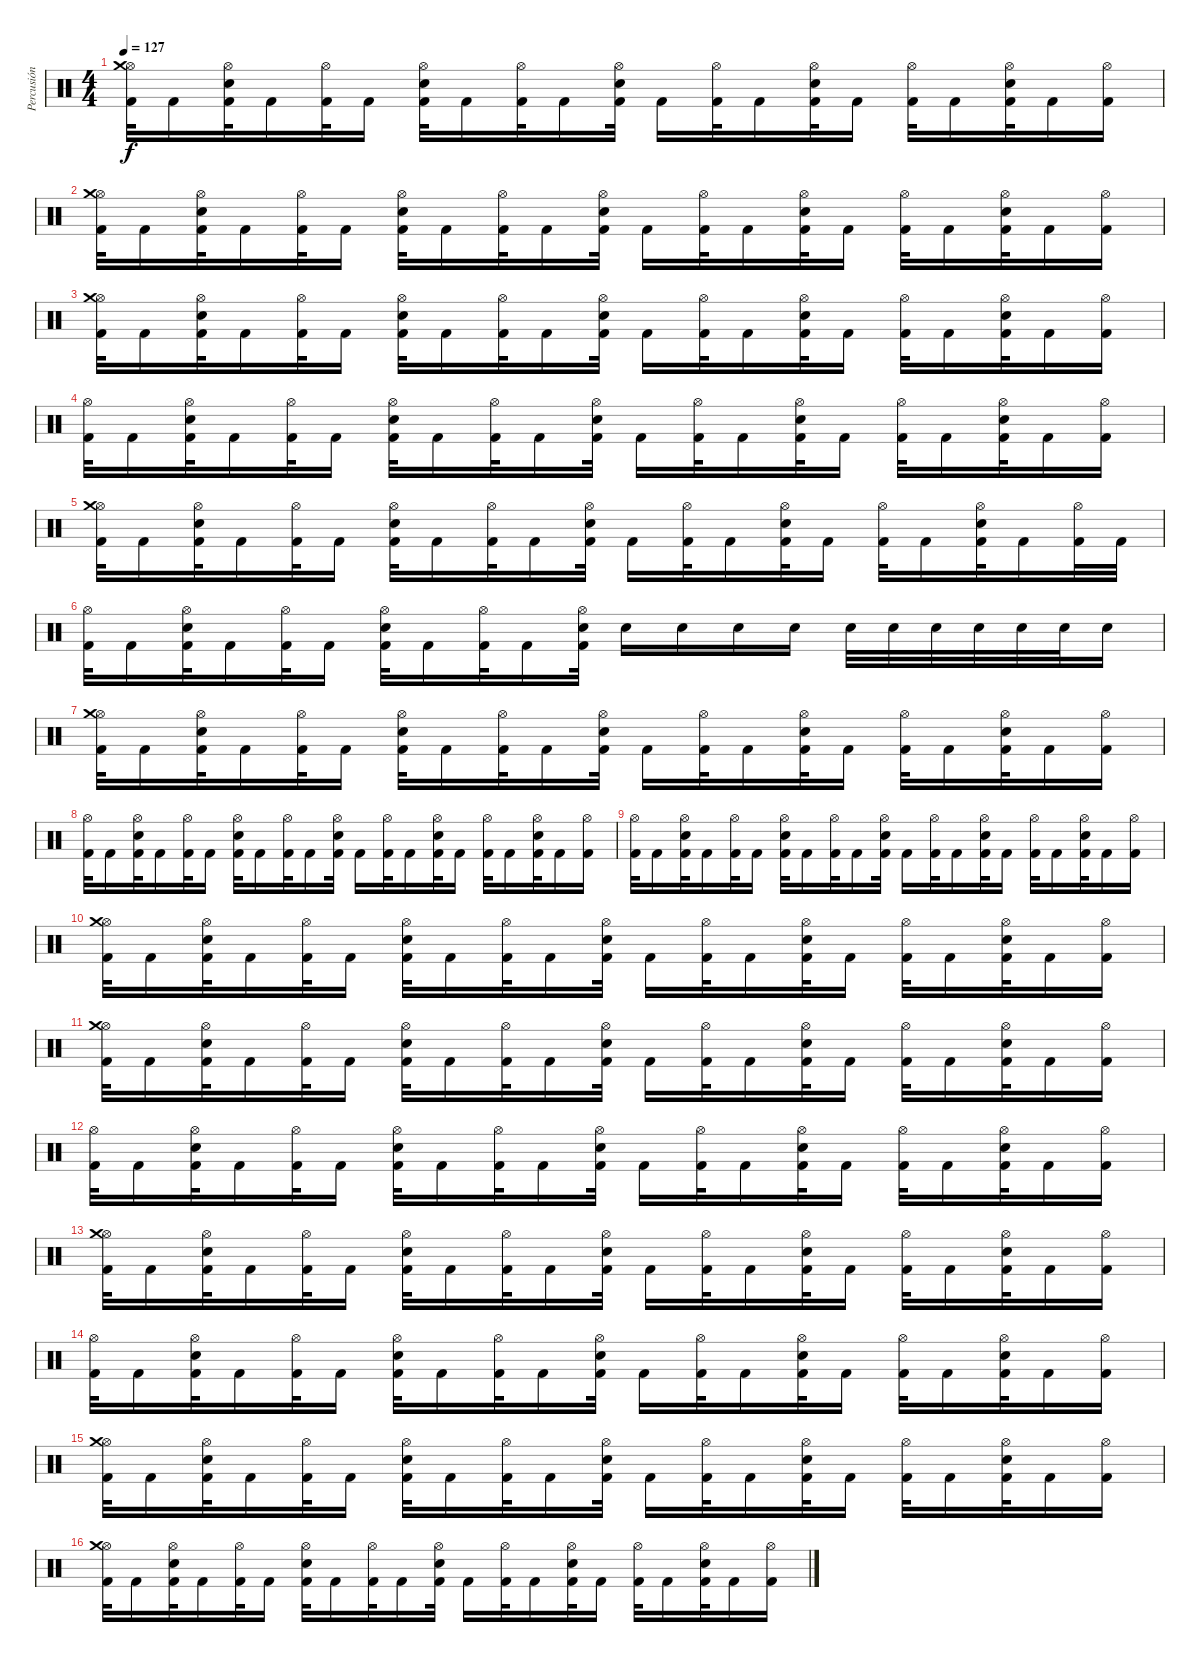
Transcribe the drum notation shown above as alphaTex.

\track ("Percusión" "Percusión") {instrument percussion}
\staff {score}
\articulation defaults
\ts (4 4)
\tempo 127
\clef neutral
\ks c
("Hi-Hat (open)" "Kick (hit) 2" "Crash medium (hit)").32{dy f} "Kick (hit) 2".16 ("Hi-Hat (open)" "Electric Snare (hit)" "Kick (hit) 2").32 "Kick (hit) 2".16 ("Hi-Hat (open)" "Kick (hit) 2").32 "Kick (hit) 2".16 ("Hi-Hat (open)" "Electric Snare (hit)" "Kick (hit) 2").32 "Kick (hit) 2".16 ("Hi-Hat (open)" "Kick (hit) 2").32 "Kick (hit) 2".16 ("Hi-Hat (open)" "Electric Snare (hit)" "Kick (hit) 2").32 "Kick (hit) 2".16 ("Hi-Hat (open)" "Kick (hit) 2").32 "Kick (hit) 2".16 ("Hi-Hat (open)" "Electric Snare (hit)" "Kick (hit) 2").32 "Kick (hit) 2".16 ("Hi-Hat (open)" "Kick (hit) 2").32 "Kick (hit) 2".16 ("Hi-Hat (open)" "Electric Snare (hit)" "Kick (hit) 2").32 "Kick (hit) 2".16 ("Hi-Hat (open)" "Kick (hit) 2").16 |
("Hi-Hat (open)" "Kick (hit) 2" "Crash medium (hit)").32 "Kick (hit) 2".16 ("Hi-Hat (open)" "Electric Snare (hit)" "Kick (hit) 2").32 "Kick (hit) 2".16 ("Hi-Hat (open)" "Kick (hit) 2").32 "Kick (hit) 2".16 ("Hi-Hat (open)" "Electric Snare (hit)" "Kick (hit) 2").32 "Kick (hit) 2".16 ("Hi-Hat (open)" "Kick (hit) 2").32 "Kick (hit) 2".16 ("Hi-Hat (open)" "Electric Snare (hit)" "Kick (hit) 2").32 "Kick (hit) 2".16 ("Hi-Hat (open)" "Kick (hit) 2").32 "Kick (hit) 2".16 ("Hi-Hat (open)" "Electric Snare (hit)" "Kick (hit) 2").32 "Kick (hit) 2".16 ("Hi-Hat (open)" "Kick (hit) 2").32 "Kick (hit) 2".16 ("Hi-Hat (open)" "Electric Snare (hit)" "Kick (hit) 2").32 "Kick (hit) 2".16 ("Hi-Hat (open)" "Kick (hit) 2").16 |
("Hi-Hat (open)" "Kick (hit) 2" "Crash medium (hit)").32 "Kick (hit) 2".16 ("Hi-Hat (open)" "Electric Snare (hit)" "Kick (hit) 2").32 "Kick (hit) 2".16 ("Hi-Hat (open)" "Kick (hit) 2").32 "Kick (hit) 2".16 ("Hi-Hat (open)" "Electric Snare (hit)" "Kick (hit) 2").32 "Kick (hit) 2".16 ("Hi-Hat (open)" "Kick (hit) 2").32 "Kick (hit) 2".16 ("Hi-Hat (open)" "Electric Snare (hit)" "Kick (hit) 2").32 "Kick (hit) 2".16 ("Hi-Hat (open)" "Kick (hit) 2").32 "Kick (hit) 2".16 ("Hi-Hat (open)" "Electric Snare (hit)" "Kick (hit) 2").32 "Kick (hit) 2".16 ("Hi-Hat (open)" "Kick (hit) 2").32 "Kick (hit) 2".16 ("Hi-Hat (open)" "Electric Snare (hit)" "Kick (hit) 2").32 "Kick (hit) 2".16 ("Hi-Hat (open)" "Kick (hit) 2").16 |
("Hi-Hat (open)" "Kick (hit) 2").32 "Kick (hit) 2".16 ("Hi-Hat (open)" "Electric Snare (hit)" "Kick (hit) 2").32 "Kick (hit) 2".16 ("Hi-Hat (open)" "Kick (hit) 2").32 "Kick (hit) 2".16 ("Hi-Hat (open)" "Electric Snare (hit)" "Kick (hit) 2").32 "Kick (hit) 2".16 ("Hi-Hat (open)" "Kick (hit) 2").32 "Kick (hit) 2".16 ("Hi-Hat (open)" "Electric Snare (hit)" "Kick (hit) 2").32 "Kick (hit) 2".16 ("Hi-Hat (open)" "Kick (hit) 2").32 "Kick (hit) 2".16 ("Hi-Hat (open)" "Electric Snare (hit)" "Kick (hit) 2").32 "Kick (hit) 2".16 ("Hi-Hat (open)" "Kick (hit) 2").32 "Kick (hit) 2".16 ("Hi-Hat (open)" "Electric Snare (hit)" "Kick (hit) 2").32 "Kick (hit) 2".16 ("Hi-Hat (open)" "Kick (hit) 2").16 |
("Hi-Hat (open)" "Kick (hit) 2" "Crash medium (hit)").32 "Kick (hit) 2".16 ("Hi-Hat (open)" "Electric Snare (hit)" "Kick (hit) 2").32 "Kick (hit) 2".16 ("Hi-Hat (open)" "Kick (hit) 2").32 "Kick (hit) 2".16 ("Hi-Hat (open)" "Electric Snare (hit)" "Kick (hit) 2").32 "Kick (hit) 2".16 ("Hi-Hat (open)" "Kick (hit) 2").32 "Kick (hit) 2".16 ("Hi-Hat (open)" "Electric Snare (hit)" "Kick (hit) 2").32 "Kick (hit) 2".16 ("Hi-Hat (open)" "Kick (hit) 2").32 "Kick (hit) 2".16 ("Hi-Hat (open)" "Electric Snare (hit)" "Kick (hit) 2").32 "Kick (hit) 2".16 ("Hi-Hat (open)" "Kick (hit) 2").32 "Kick (hit) 2".16 ("Hi-Hat (open)" "Electric Snare (hit)" "Kick (hit) 2").32 "Kick (hit) 2".16 ("Hi-Hat (open)" "Kick (hit) 2").32 "Kick (hit) 2".32 |
("Hi-Hat (open)" "Kick (hit) 2").32 "Kick (hit) 2".16 ("Hi-Hat (open)" "Electric Snare (hit)" "Kick (hit) 2").32 "Kick (hit) 2".16 ("Hi-Hat (open)" "Kick (hit) 2").32 "Kick (hit) 2".16 ("Hi-Hat (open)" "Electric Snare (hit)" "Kick (hit) 2").32 "Kick (hit) 2".16 ("Hi-Hat (open)" "Kick (hit) 2").32 "Kick (hit) 2".16 ("Hi-Hat (open)" "Electric Snare (hit)" "Kick (hit) 2").32 "Snare (hit) 2".16 "Snare (hit) 2".16 "Snare (hit) 2".16 "Snare (hit) 2".16 "Snare (hit) 2".32 "Snare (hit) 2".32 "Snare (hit) 2".32 "Snare (hit) 2".32 "Snare (hit) 2".32 "Snare (hit) 2".32 "Snare (hit) 2".16 |
("Hi-Hat (open)" "Kick (hit) 2" "Crash medium (hit)").32 "Kick (hit) 2".16 ("Hi-Hat (open)" "Electric Snare (hit)" "Kick (hit) 2").32 "Kick (hit) 2".16 ("Hi-Hat (open)" "Kick (hit) 2").32 "Kick (hit) 2".16 ("Hi-Hat (open)" "Electric Snare (hit)" "Kick (hit) 2").32 "Kick (hit) 2".16 ("Hi-Hat (open)" "Kick (hit) 2").32 "Kick (hit) 2".16 ("Hi-Hat (open)" "Electric Snare (hit)" "Kick (hit) 2").32 "Kick (hit) 2".16 ("Hi-Hat (open)" "Kick (hit) 2").32 "Kick (hit) 2".16 ("Hi-Hat (open)" "Electric Snare (hit)" "Kick (hit) 2").32 "Kick (hit) 2".16 ("Hi-Hat (open)" "Kick (hit) 2").32 "Kick (hit) 2".16 ("Hi-Hat (open)" "Electric Snare (hit)" "Kick (hit) 2").32 "Kick (hit) 2".16 ("Hi-Hat (open)" "Kick (hit) 2").16 |
("Hi-Hat (open)" "Kick (hit) 2").32 "Kick (hit) 2".16 ("Hi-Hat (open)" "Electric Snare (hit)" "Kick (hit) 2").32 "Kick (hit) 2".16 ("Hi-Hat (open)" "Kick (hit) 2").32 "Kick (hit) 2".16 ("Hi-Hat (open)" "Electric Snare (hit)" "Kick (hit) 2").32 "Kick (hit) 2".16 ("Hi-Hat (open)" "Kick (hit) 2").32 "Kick (hit) 2".16 ("Hi-Hat (open)" "Electric Snare (hit)" "Kick (hit) 2").32 "Kick (hit) 2".16 ("Hi-Hat (open)" "Kick (hit) 2").32 "Kick (hit) 2".16 ("Hi-Hat (open)" "Electric Snare (hit)" "Kick (hit) 2").32 "Kick (hit) 2".16 ("Hi-Hat (open)" "Kick (hit) 2").32 "Kick (hit) 2".16 ("Hi-Hat (open)" "Electric Snare (hit)" "Kick (hit) 2").32 "Kick (hit) 2".16 ("Hi-Hat (open)" "Kick (hit) 2").16 |
("Hi-Hat (open)" "Kick (hit) 2").32 "Kick (hit) 2".16 ("Hi-Hat (open)" "Electric Snare (hit)" "Kick (hit) 2").32 "Kick (hit) 2".16 ("Hi-Hat (open)" "Kick (hit) 2").32 "Kick (hit) 2".16 ("Hi-Hat (open)" "Electric Snare (hit)" "Kick (hit) 2").32 "Kick (hit) 2".16 ("Hi-Hat (open)" "Kick (hit) 2").32 "Kick (hit) 2".16 ("Hi-Hat (open)" "Electric Snare (hit)" "Kick (hit) 2").32 "Kick (hit) 2".16 ("Hi-Hat (open)" "Kick (hit) 2").32 "Kick (hit) 2".16 ("Hi-Hat (open)" "Electric Snare (hit)" "Kick (hit) 2").32 "Kick (hit) 2".16 ("Hi-Hat (open)" "Kick (hit) 2").32 "Kick (hit) 2".16 ("Hi-Hat (open)" "Electric Snare (hit)" "Kick (hit) 2").32 "Kick (hit) 2".16 ("Hi-Hat (open)" "Kick (hit) 2").16 |
("Hi-Hat (open)" "Kick (hit) 2" "Crash medium (hit)").32 "Kick (hit) 2".16 ("Hi-Hat (open)" "Electric Snare (hit)" "Kick (hit) 2").32 "Kick (hit) 2".16 ("Hi-Hat (open)" "Kick (hit) 2").32 "Kick (hit) 2".16 ("Hi-Hat (open)" "Electric Snare (hit)" "Kick (hit) 2").32 "Kick (hit) 2".16 ("Hi-Hat (open)" "Kick (hit) 2").32 "Kick (hit) 2".16 ("Hi-Hat (open)" "Electric Snare (hit)" "Kick (hit) 2").32 "Kick (hit) 2".16 ("Hi-Hat (open)" "Kick (hit) 2").32 "Kick (hit) 2".16 ("Hi-Hat (open)" "Electric Snare (hit)" "Kick (hit) 2").32 "Kick (hit) 2".16 ("Hi-Hat (open)" "Kick (hit) 2").32 "Kick (hit) 2".16 ("Hi-Hat (open)" "Electric Snare (hit)" "Kick (hit) 2").32 "Kick (hit) 2".16 ("Hi-Hat (open)" "Kick (hit) 2").16 |
("Hi-Hat (open)" "Kick (hit) 2" "Crash medium (hit)").32 "Kick (hit) 2".16 ("Hi-Hat (open)" "Electric Snare (hit)" "Kick (hit) 2").32 "Kick (hit) 2".16 ("Hi-Hat (open)" "Kick (hit) 2").32 "Kick (hit) 2".16 ("Hi-Hat (open)" "Electric Snare (hit)" "Kick (hit) 2").32 "Kick (hit) 2".16 ("Hi-Hat (open)" "Kick (hit) 2").32 "Kick (hit) 2".16 ("Hi-Hat (open)" "Electric Snare (hit)" "Kick (hit) 2").32 "Kick (hit) 2".16 ("Hi-Hat (open)" "Kick (hit) 2").32 "Kick (hit) 2".16 ("Hi-Hat (open)" "Electric Snare (hit)" "Kick (hit) 2").32 "Kick (hit) 2".16 ("Hi-Hat (open)" "Kick (hit) 2").32 "Kick (hit) 2".16 ("Hi-Hat (open)" "Electric Snare (hit)" "Kick (hit) 2").32 "Kick (hit) 2".16 ("Hi-Hat (open)" "Kick (hit) 2").16 |
("Hi-Hat (open)" "Kick (hit) 2").32 "Kick (hit) 2".16 ("Hi-Hat (open)" "Electric Snare (hit)" "Kick (hit) 2").32 "Kick (hit) 2".16 ("Hi-Hat (open)" "Kick (hit) 2").32 "Kick (hit) 2".16 ("Hi-Hat (open)" "Electric Snare (hit)" "Kick (hit) 2").32 "Kick (hit) 2".16 ("Hi-Hat (open)" "Kick (hit) 2").32 "Kick (hit) 2".16 ("Hi-Hat (open)" "Electric Snare (hit)" "Kick (hit) 2").32 "Kick (hit) 2".16 ("Hi-Hat (open)" "Kick (hit) 2").32 "Kick (hit) 2".16 ("Hi-Hat (open)" "Electric Snare (hit)" "Kick (hit) 2").32 "Kick (hit) 2".16 ("Hi-Hat (open)" "Kick (hit) 2").32 "Kick (hit) 2".16 ("Hi-Hat (open)" "Electric Snare (hit)" "Kick (hit) 2").32 "Kick (hit) 2".16 ("Hi-Hat (open)" "Kick (hit) 2").16 |
("Hi-Hat (open)" "Kick (hit) 2" "Crash medium (hit)").32 "Kick (hit) 2".16 ("Hi-Hat (open)" "Electric Snare (hit)" "Kick (hit) 2").32 "Kick (hit) 2".16 ("Hi-Hat (open)" "Kick (hit) 2").32 "Kick (hit) 2".16 ("Hi-Hat (open)" "Electric Snare (hit)" "Kick (hit) 2").32 "Kick (hit) 2".16 ("Hi-Hat (open)" "Kick (hit) 2").32 "Kick (hit) 2".16 ("Hi-Hat (open)" "Electric Snare (hit)" "Kick (hit) 2").32 "Kick (hit) 2".16 ("Hi-Hat (open)" "Kick (hit) 2").32 "Kick (hit) 2".16 ("Hi-Hat (open)" "Electric Snare (hit)" "Kick (hit) 2").32 "Kick (hit) 2".16 ("Hi-Hat (open)" "Kick (hit) 2").32 "Kick (hit) 2".16 ("Hi-Hat (open)" "Electric Snare (hit)" "Kick (hit) 2").32 "Kick (hit) 2".16 ("Hi-Hat (open)" "Kick (hit) 2").16 |
("Hi-Hat (open)" "Kick (hit) 2").32 "Kick (hit) 2".16 ("Hi-Hat (open)" "Electric Snare (hit)" "Kick (hit) 2").32 "Kick (hit) 2".16 ("Hi-Hat (open)" "Kick (hit) 2").32 "Kick (hit) 2".16 ("Hi-Hat (open)" "Electric Snare (hit)" "Kick (hit) 2").32 "Kick (hit) 2".16 ("Hi-Hat (open)" "Kick (hit) 2").32 "Kick (hit) 2".16 ("Hi-Hat (open)" "Electric Snare (hit)" "Kick (hit) 2").32 "Kick (hit) 2".16 ("Hi-Hat (open)" "Kick (hit) 2").32 "Kick (hit) 2".16 ("Hi-Hat (open)" "Electric Snare (hit)" "Kick (hit) 2").32 "Kick (hit) 2".16 ("Hi-Hat (open)" "Kick (hit) 2").32 "Kick (hit) 2".16 ("Hi-Hat (open)" "Electric Snare (hit)" "Kick (hit) 2").32 "Kick (hit) 2".16 ("Hi-Hat (open)" "Kick (hit) 2").16 |
("Hi-Hat (open)" "Kick (hit) 2" "Crash medium (hit)").32 "Kick (hit) 2".16 ("Hi-Hat (open)" "Electric Snare (hit)" "Kick (hit) 2").32 "Kick (hit) 2".16 ("Hi-Hat (open)" "Kick (hit) 2").32 "Kick (hit) 2".16 ("Hi-Hat (open)" "Electric Snare (hit)" "Kick (hit) 2").32 "Kick (hit) 2".16 ("Hi-Hat (open)" "Kick (hit) 2").32 "Kick (hit) 2".16 ("Hi-Hat (open)" "Electric Snare (hit)" "Kick (hit) 2").32 "Kick (hit) 2".16 ("Hi-Hat (open)" "Kick (hit) 2").32 "Kick (hit) 2".16 ("Hi-Hat (open)" "Electric Snare (hit)" "Kick (hit) 2").32 "Kick (hit) 2".16 ("Hi-Hat (open)" "Kick (hit) 2").32 "Kick (hit) 2".16 ("Hi-Hat (open)" "Electric Snare (hit)" "Kick (hit) 2").32 "Kick (hit) 2".16 ("Hi-Hat (open)" "Kick (hit) 2").16 |
("Hi-Hat (open)" "Kick (hit) 2" "Crash medium (hit)").32 "Kick (hit) 2".16 ("Hi-Hat (open)" "Electric Snare (hit)" "Kick (hit) 2").32 "Kick (hit) 2".16 ("Hi-Hat (open)" "Kick (hit) 2").32 "Kick (hit) 2".16 ("Hi-Hat (open)" "Electric Snare (hit)" "Kick (hit) 2").32 "Kick (hit) 2".16 ("Hi-Hat (open)" "Kick (hit) 2").32 "Kick (hit) 2".16 ("Hi-Hat (open)" "Electric Snare (hit)" "Kick (hit) 2").32 "Kick (hit) 2".16 ("Hi-Hat (open)" "Kick (hit) 2").32 "Kick (hit) 2".16 ("Hi-Hat (open)" "Electric Snare (hit)" "Kick (hit) 2").32 "Kick (hit) 2".16 ("Hi-Hat (open)" "Kick (hit) 2").32 "Kick (hit) 2".16 ("Hi-Hat (open)" "Electric Snare (hit)" "Kick (hit) 2").32 "Kick (hit) 2".16 ("Hi-Hat (open)" "Kick (hit) 2").16
